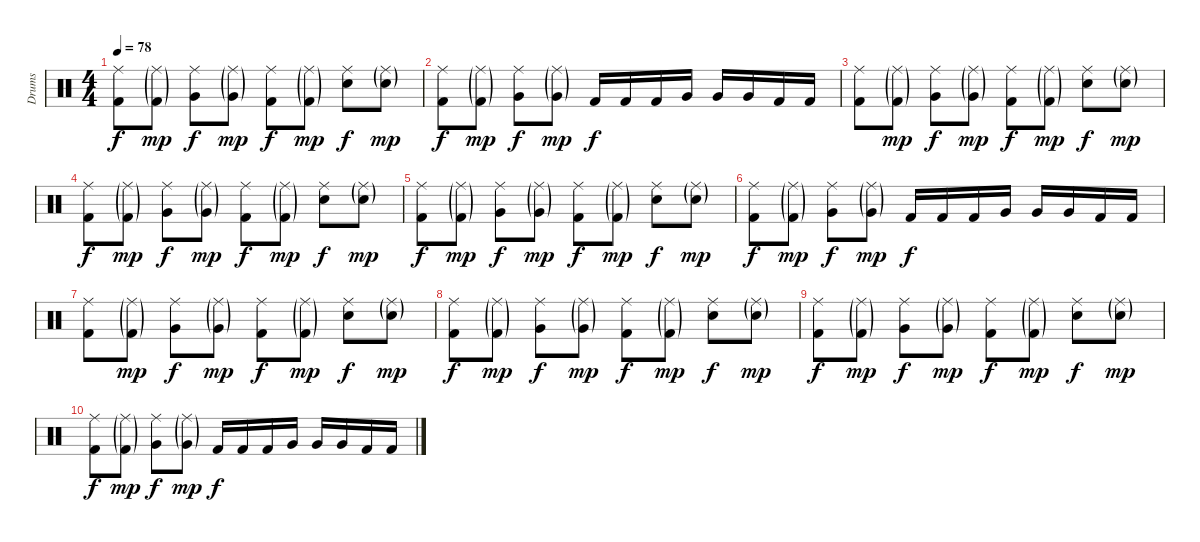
\track ("Drums" "Drums") {instrument percussion}
\staff {score}
\articulation defaults
\ts (4 4)
\tempo 78
\clef neutral
\ks c
("Ride (middle)" "Kick (hit) 2").8{dy f} ("Ride (middle)"{g} "Kick (hit) 2"{g}).8{dy mp} ("Ride (middle)" "Very Low Tom (hit)").8{dy f} ("Ride (middle)"{g} "Very Low Tom (hit)"{g}).8{dy mp} ("Ride (middle)" "Kick (hit) 2").8{dy f} ("Ride (middle)"{g} "Kick (hit) 2"{g}).8{dy mp} ("Ride (middle)" "Snare (hit) 2").8{dy f} ("Ride (middle)"{g} "Snare (hit) 2"{g}).8{dy mp} |
("Ride (middle)" "Kick (hit) 2").8{dy f} ("Ride (middle)"{g} "Kick (hit) 2"{g}).8{dy mp} ("Ride (middle)" "Very Low Tom (hit)").8{dy f} ("Ride (middle)"{g} "Very Low Tom (hit)"{g}).8{dy mp} "Kick (hit) 2".16{dy f} "Kick (hit) 2".16 "Kick (hit) 2".16 "Very Low Tom (hit)".16 "Very Low Tom (hit)".16 "Very Low Tom (hit)".16 "Kick (hit) 2".16 "Kick (hit) 2".16 |
("Ride (middle)" "Kick (hit) 2").8 ("Ride (middle)"{g} "Kick (hit) 2"{g}).8{dy mp} ("Ride (middle)" "Very Low Tom (hit)").8{dy f} ("Ride (middle)"{g} "Very Low Tom (hit)"{g}).8{dy mp} ("Ride (middle)" "Kick (hit) 2").8{dy f} ("Ride (middle)"{g} "Kick (hit) 2"{g}).8{dy mp} ("Ride (middle)" "Snare (hit) 2").8{dy f} ("Ride (middle)"{g} "Snare (hit) 2"{g}).8{dy mp} |
("Ride (middle)" "Kick (hit) 2").8{dy f} ("Ride (middle)"{g} "Kick (hit) 2"{g}).8{dy mp} ("Ride (middle)" "Very Low Tom (hit)").8{dy f} ("Ride (middle)"{g} "Very Low Tom (hit)"{g}).8{dy mp} ("Ride (middle)" "Kick (hit) 2").8{dy f} ("Ride (middle)"{g} "Kick (hit) 2"{g}).8{dy mp} ("Ride (middle)" "Snare (hit) 2").8{dy f} ("Ride (middle)"{g} "Snare (hit) 2"{g}).8{dy mp} |
("Ride (middle)" "Kick (hit) 2").8{dy f} ("Ride (middle)"{g} "Kick (hit) 2"{g}).8{dy mp} ("Ride (middle)" "Very Low Tom (hit)").8{dy f} ("Ride (middle)"{g} "Very Low Tom (hit)"{g}).8{dy mp} ("Ride (middle)" "Kick (hit) 2").8{dy f} ("Ride (middle)"{g} "Kick (hit) 2"{g}).8{dy mp} ("Ride (middle)" "Snare (hit) 2").8{dy f} ("Ride (middle)"{g} "Snare (hit) 2"{g}).8{dy mp} |
("Ride (middle)" "Kick (hit) 2").8{dy f} ("Ride (middle)"{g} "Kick (hit) 2"{g}).8{dy mp} ("Ride (middle)" "Very Low Tom (hit)").8{dy f} ("Ride (middle)"{g} "Very Low Tom (hit)"{g}).8{dy mp} "Kick (hit) 2".16{dy f} "Kick (hit) 2".16 "Kick (hit) 2".16 "Very Low Tom (hit)".16 "Very Low Tom (hit)".16 "Very Low Tom (hit)".16 "Kick (hit) 2".16 "Kick (hit) 2".16 |
("Ride (middle)" "Kick (hit) 2").8 ("Ride (middle)"{g} "Kick (hit) 2"{g}).8{dy mp} ("Ride (middle)" "Very Low Tom (hit)").8{dy f} ("Ride (middle)"{g} "Very Low Tom (hit)"{g}).8{dy mp} ("Ride (middle)" "Kick (hit) 2").8{dy f} ("Ride (middle)"{g} "Kick (hit) 2"{g}).8{dy mp} ("Ride (middle)" "Snare (hit) 2").8{dy f} ("Ride (middle)"{g} "Snare (hit) 2"{g}).8{dy mp} |
("Ride (middle)" "Kick (hit) 2").8{dy f} ("Ride (middle)"{g} "Kick (hit) 2"{g}).8{dy mp} ("Ride (middle)" "Very Low Tom (hit)").8{dy f} ("Ride (middle)"{g} "Very Low Tom (hit)"{g}).8{dy mp} ("Ride (middle)" "Kick (hit) 2").8{dy f} ("Ride (middle)"{g} "Kick (hit) 2"{g}).8{dy mp} ("Ride (middle)" "Snare (hit) 2").8{dy f} ("Ride (middle)"{g} "Snare (hit) 2"{g}).8{dy mp} |
("Ride (middle)" "Kick (hit) 2").8{dy f} ("Ride (middle)"{g} "Kick (hit) 2"{g}).8{dy mp} ("Ride (middle)" "Very Low Tom (hit)").8{dy f} ("Ride (middle)"{g} "Very Low Tom (hit)"{g}).8{dy mp} ("Ride (middle)" "Kick (hit) 2").8{dy f} ("Ride (middle)"{g} "Kick (hit) 2"{g}).8{dy mp} ("Ride (middle)" "Snare (hit) 2").8{dy f} ("Ride (middle)"{g} "Snare (hit) 2"{g}).8{dy mp} |
("Ride (middle)" "Kick (hit) 2").8{dy f} ("Ride (middle)"{g} "Kick (hit) 2"{g}).8{dy mp} ("Ride (middle)" "Very Low Tom (hit)").8{dy f} ("Ride (middle)"{g} "Very Low Tom (hit)"{g}).8{dy mp} "Kick (hit) 2".16{dy f} "Kick (hit) 2".16 "Kick (hit) 2".16 "Very Low Tom (hit)".16 "Very Low Tom (hit)".16 "Very Low Tom (hit)".16 "Kick (hit) 2".16 "Kick (hit) 2".16
